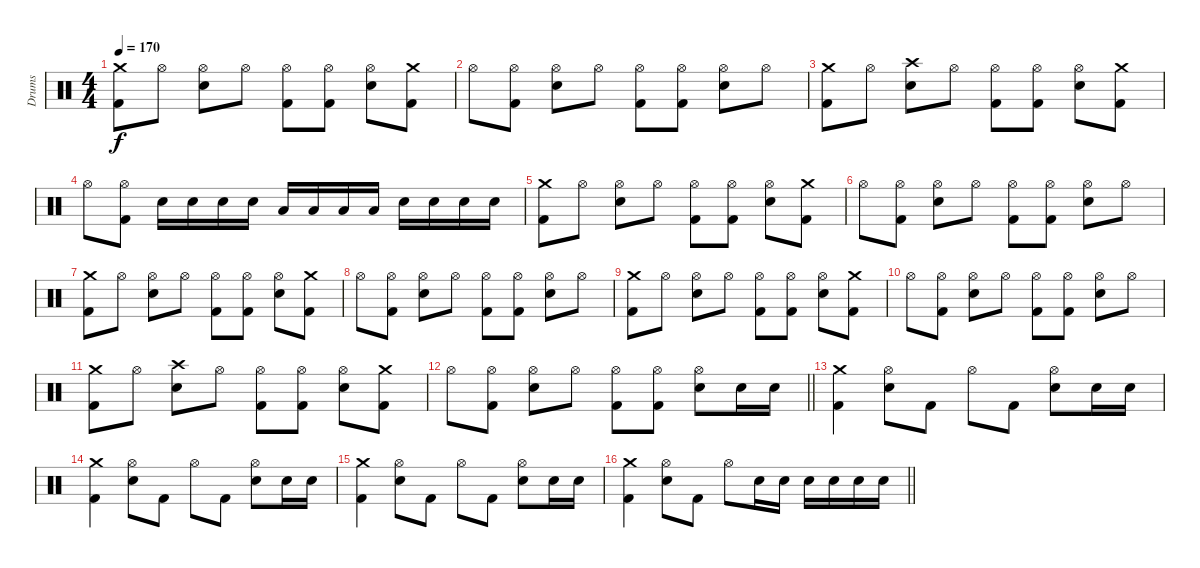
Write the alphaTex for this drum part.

\track ("Drums" "Drums") {instrument percussion}
\staff {score}
\articulation defaults
\ts (4 4)
\tempo 170
\clef neutral
\ks c
("Crash medium (hit)" "Kick (hit) 2").8{dy f} "Hi-Hat (open)".8 ("Hi-Hat (open)" "Electric Snare (hit)").8 "Hi-Hat (open)".8 ("Hi-Hat (open)" "Kick (hit) 2").8 ("Hi-Hat (open)" "Kick (hit) 2").8 ("Hi-Hat (open)" "Electric Snare (hit)").8 ("Crash medium (hit)" "Kick (hit) 2").8 |
"Hi-Hat (open)".8 ("Hi-Hat (open)" "Kick (hit) 2").8 ("Hi-Hat (open)" "Electric Snare (hit)").8 "Hi-Hat (open)".8 ("Hi-Hat (open)" "Kick (hit) 2").8 ("Hi-Hat (open)" "Kick (hit) 2").8 ("Hi-Hat (open)" "Electric Snare (hit)").8 "Hi-Hat (open)".8 |
("Crash medium (hit)" "Kick (hit) 2").8 "Hi-Hat (open)".8 ("Crash high (hit)" "Electric Snare (hit)").8 "Hi-Hat (open)".8 ("Hi-Hat (open)" "Kick (hit) 2").8 ("Hi-Hat (open)" "Kick (hit) 2").8 ("Hi-Hat (open)" "Electric Snare (hit)").8 ("Crash medium (hit)" "Kick (hit) 2").8 |
"Hi-Hat (open)".8 ("Hi-Hat (open)" "Kick (hit) 2").8 "Electric Snare (hit)".16 "Electric Snare (hit)".16 "Electric Snare (hit)".16 "Electric Snare (hit)".16 "Low Tom (hit)".16 "Low Tom (hit)".16 "Low Tom (hit)".16 "Low Tom (hit)".16 "Electric Snare (hit)".16 "Electric Snare (hit)".16 "Electric Snare (hit)".16 "Electric Snare (hit)".16 |
("Crash medium (hit)" "Kick (hit) 2").8 "Hi-Hat (open)".8 ("Hi-Hat (open)" "Electric Snare (hit)").8 "Hi-Hat (open)".8 ("Hi-Hat (open)" "Kick (hit) 2").8 ("Hi-Hat (open)" "Kick (hit) 2").8 ("Hi-Hat (open)" "Electric Snare (hit)").8 ("Crash medium (hit)" "Kick (hit) 2").8 |
"Hi-Hat (open)".8 ("Hi-Hat (open)" "Kick (hit) 2").8 ("Hi-Hat (open)" "Electric Snare (hit)").8 "Hi-Hat (open)".8 ("Hi-Hat (open)" "Kick (hit) 2").8 ("Hi-Hat (open)" "Kick (hit) 2").8 ("Hi-Hat (open)" "Electric Snare (hit)").8 "Hi-Hat (open)".8 |
("Crash medium (hit)" "Kick (hit) 2").8 "Hi-Hat (open)".8 ("Hi-Hat (open)" "Electric Snare (hit)").8 "Hi-Hat (open)".8 ("Hi-Hat (open)" "Kick (hit) 2").8 ("Hi-Hat (open)" "Kick (hit) 2").8 ("Hi-Hat (open)" "Electric Snare (hit)").8 ("Crash medium (hit)" "Kick (hit) 2").8 |
"Hi-Hat (open)".8 ("Hi-Hat (open)" "Kick (hit) 2").8 ("Hi-Hat (open)" "Electric Snare (hit)").8 "Hi-Hat (open)".8 ("Hi-Hat (open)" "Kick (hit) 2").8 ("Hi-Hat (open)" "Kick (hit) 2").8 ("Hi-Hat (open)" "Electric Snare (hit)").8 "Hi-Hat (open)".8 |
("Crash medium (hit)" "Kick (hit) 2").8 "Hi-Hat (open)".8 ("Hi-Hat (open)" "Electric Snare (hit)").8 "Hi-Hat (open)".8 ("Hi-Hat (open)" "Kick (hit) 2").8 ("Hi-Hat (open)" "Kick (hit) 2").8 ("Hi-Hat (open)" "Electric Snare (hit)").8 ("Crash medium (hit)" "Kick (hit) 2").8 |
"Hi-Hat (open)".8 ("Hi-Hat (open)" "Kick (hit) 2").8 ("Hi-Hat (open)" "Electric Snare (hit)").8 "Hi-Hat (open)".8 ("Hi-Hat (open)" "Kick (hit) 2").8 ("Hi-Hat (open)" "Kick (hit) 2").8 ("Hi-Hat (open)" "Electric Snare (hit)").8 "Hi-Hat (open)".8 |
("Crash medium (hit)" "Kick (hit) 2").8 "Hi-Hat (open)".8 ("Crash high (hit)" "Electric Snare (hit)").8 "Hi-Hat (open)".8 ("Hi-Hat (open)" "Kick (hit) 2").8 ("Hi-Hat (open)" "Kick (hit) 2").8 ("Hi-Hat (open)" "Electric Snare (hit)").8 ("Crash medium (hit)" "Kick (hit) 2").8 |
\barLineRight lightlight "Hi-Hat (open)".8
("Hi-Hat (open)" "Kick (hit) 2").8 ("Hi-Hat (open)" "Electric Snare (hit)").8 "Hi-Hat (open)".8 ("Hi-Hat (open)" "Kick (hit) 2").8 ("Hi-Hat (open)" "Kick (hit) 2").8 ("Hi-Hat (open)" "Electric Snare (hit)").8 "Electric Snare (hit)".16 "Electric Snare (hit)".16 |
("Crash medium (hit)" "Kick (hit) 2").4 ("Hi-Hat (open)" "Electric Snare (hit)").8 "Kick (hit) 2".8 "Hi-Hat (open)".8 "Kick (hit) 2".8 ("Hi-Hat (open)" "Electric Snare (hit)").8 "Electric Snare (hit)".16 "Electric Snare (hit)".16 |
("Crash medium (hit)" "Kick (hit) 2").4 ("Hi-Hat (open)" "Electric Snare (hit)").8 "Kick (hit) 2".8 "Hi-Hat (open)".8 "Kick (hit) 2".8 ("Hi-Hat (open)" "Electric Snare (hit)").8 "Electric Snare (hit)".16 "Electric Snare (hit)".16 |
("Crash medium (hit)" "Kick (hit) 2").4 ("Hi-Hat (open)" "Electric Snare (hit)").8 "Kick (hit) 2".8 "Hi-Hat (open)".8 "Kick (hit) 2".8 ("Hi-Hat (open)" "Electric Snare (hit)").8 "Electric Snare (hit)".16 "Electric Snare (hit)".16 |
\barLineRight lightlight
("Crash medium (hit)" "Kick (hit) 2").4 ("Hi-Hat (open)" "Electric Snare (hit)").8 "Kick (hit) 2".8 "Hi-Hat (open)".8 "Electric Snare (hit)".16 "Electric Snare (hit)".16 "Electric Snare (hit)".16 "Electric Snare (hit)".16 "Electric Snare (hit)".16 "Electric Snare (hit)".16
